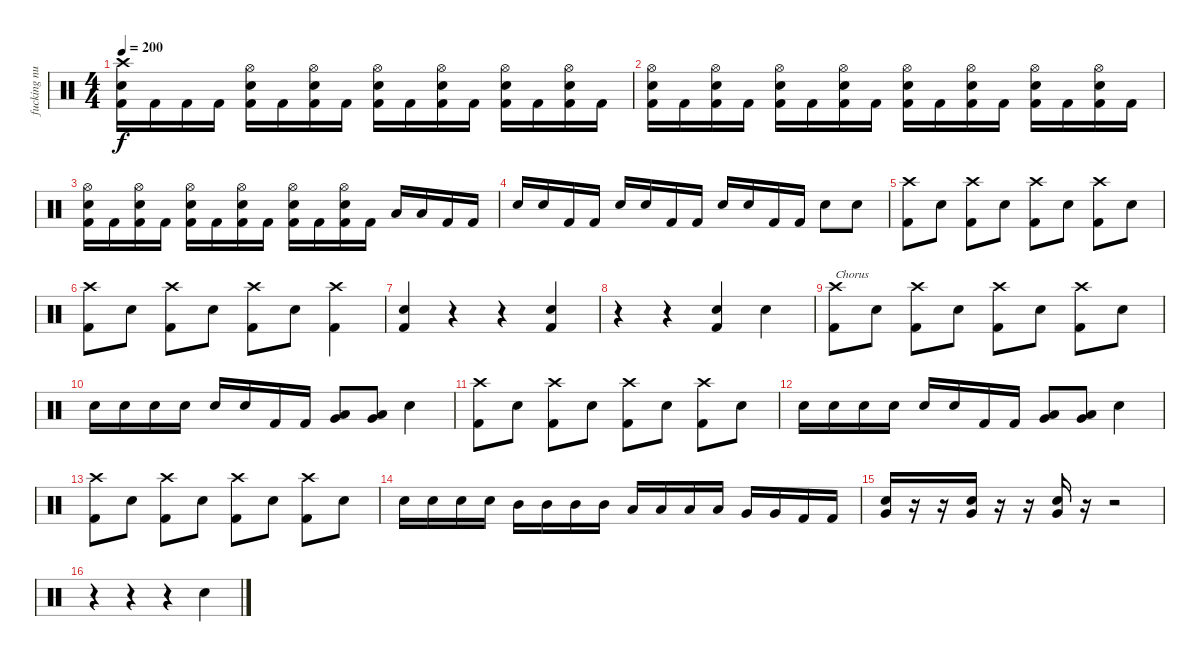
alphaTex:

\track ("fucking nuts." "fucking nu") {instrument percussion}
\staff {score}
\articulation defaults
\ts (4 4)
\tempo 200
\clef neutral
\ks c
("Crash high (hit)" "Electric Snare (hit)" "Kick (hit) 2").16{dy f} "Kick (hit) 2".16 "Kick (hit) 2".16 "Kick (hit) 2".16 ("Hi-Hat (open)" "Electric Snare (hit)" "Kick (hit) 2").16 "Kick (hit) 2".16 ("Hi-Hat (open)" "Electric Snare (hit)" "Kick (hit) 2").16 "Kick (hit) 2".16 ("Hi-Hat (open)" "Electric Snare (hit)" "Kick (hit) 2").16 "Kick (hit) 2".16 ("Hi-Hat (open)" "Electric Snare (hit)" "Kick (hit) 2").16 "Kick (hit) 2".16 ("Hi-Hat (open)" "Electric Snare (hit)" "Kick (hit) 2").16 "Kick (hit) 2".16 ("Hi-Hat (open)" "Electric Snare (hit)" "Kick (hit) 2").16 "Kick (hit) 2".16 |
("Hi-Hat (open)" "Electric Snare (hit)" "Kick (hit) 2").16 "Kick (hit) 2".16 ("Hi-Hat (open)" "Electric Snare (hit)" "Kick (hit) 2").16 "Kick (hit) 2".16 ("Hi-Hat (open)" "Electric Snare (hit)" "Kick (hit) 2").16 "Kick (hit) 2".16 ("Hi-Hat (open)" "Electric Snare (hit)" "Kick (hit) 2").16 "Kick (hit) 2".16 ("Hi-Hat (open)" "Electric Snare (hit)" "Kick (hit) 2").16 "Kick (hit) 2".16 ("Hi-Hat (open)" "Electric Snare (hit)" "Kick (hit) 2").16 "Kick (hit) 2".16 ("Hi-Hat (open)" "Electric Snare (hit)" "Kick (hit) 2").16 "Kick (hit) 2".16 ("Hi-Hat (open)" "Electric Snare (hit)" "Kick (hit) 2").16 "Kick (hit) 2".16 |
("Hi-Hat (open)" "Electric Snare (hit)" "Kick (hit) 2").16 "Kick (hit) 2".16 ("Hi-Hat (open)" "Electric Snare (hit)" "Kick (hit) 2").16 "Kick (hit) 2".16 ("Hi-Hat (open)" "Electric Snare (hit)" "Kick (hit) 2").16 "Kick (hit) 2".16 ("Hi-Hat (open)" "Electric Snare (hit)" "Kick (hit) 2").16 "Kick (hit) 2".16 ("Hi-Hat (open)" "Electric Snare (hit)" "Kick (hit) 2").16 "Kick (hit) 2".16 ("Hi-Hat (open)" "Electric Snare (hit)" "Kick (hit) 2").16 "Kick (hit) 2".16 "Low Tom (hit)".16 "Low Tom (hit)".16 "Kick (hit) 2".16 "Kick (hit) 2".16 |
"Electric Snare (hit)".16 "Electric Snare (hit)".16 "Kick (hit) 2".16 "Kick (hit) 2".16 "Electric Snare (hit)".16 "Electric Snare (hit)".16 "Kick (hit) 2".16 "Kick (hit) 2".16 "Electric Snare (hit)".16 "Electric Snare (hit)".16 "Kick (hit) 2".16 "Kick (hit) 2".16 "Electric Snare (hit)".8 "Electric Snare (hit)".8 |
("Crash high (hit)" "Kick (hit) 2").8 "Electric Snare (hit)".8 ("Crash high (hit)" "Kick (hit) 2").8 "Electric Snare (hit)".8 ("Crash high (hit)" "Kick (hit) 2").8 "Electric Snare (hit)".8 ("Crash high (hit)" "Kick (hit) 2").8 "Electric Snare (hit)".8 |
("Crash high (hit)" "Kick (hit) 2").8 "Electric Snare (hit)".8 ("Crash high (hit)" "Kick (hit) 2").8 "Electric Snare (hit)".8 ("Crash high (hit)" "Kick (hit) 2").8 "Electric Snare (hit)".8 ("Crash high (hit)" "Kick (hit) 2").4 |
("Electric Snare (hit)" "Kick (hit) 2").4 r.4 r.4 ("Electric Snare (hit)" "Kick (hit) 2").4 |
r.4 r.4 ("Electric Snare (hit)" "Kick (hit) 2").4 "Electric Snare (hit)".4 |
("Crash high (hit)" "Kick (hit) 2").8{txt "Chorus"} "Electric Snare (hit)".8 ("Crash high (hit)" "Kick (hit) 2").8 "Electric Snare (hit)".8 ("Crash high (hit)" "Kick (hit) 2").8 "Electric Snare (hit)".8 ("Crash high (hit)" "Kick (hit) 2").8 "Electric Snare (hit)".8 |
"Electric Snare (hit)".16 "Electric Snare (hit)".16 "Electric Snare (hit)".16 "Electric Snare (hit)".16 "Electric Snare (hit)".16 "Electric Snare (hit)".16 "Kick (hit) 2".16 "Kick (hit) 2".16 ("Low Tom (hit)" "Very Low Tom (hit)").8 ("Low Tom (hit)" "Very Low Tom (hit)").8 "Electric Snare (hit)".4 |
("Crash high (hit)" "Kick (hit) 2").8 "Electric Snare (hit)".8 ("Crash high (hit)" "Kick (hit) 2").8 "Electric Snare (hit)".8 ("Crash high (hit)" "Kick (hit) 2").8 "Electric Snare (hit)".8 ("Crash high (hit)" "Kick (hit) 2").8 "Electric Snare (hit)".8 |
"Electric Snare (hit)".16 "Electric Snare (hit)".16 "Electric Snare (hit)".16 "Electric Snare (hit)".16 "Electric Snare (hit)".16 "Electric Snare (hit)".16 "Kick (hit) 2".16 "Kick (hit) 2".16 ("Low Tom (hit)" "Very Low Tom (hit)").8 ("Low Tom (hit)" "Very Low Tom (hit)").8 "Electric Snare (hit)".4 |
("Crash high (hit)" "Kick (hit) 2").8 "Electric Snare (hit)".8 ("Crash high (hit)" "Kick (hit) 2").8 "Electric Snare (hit)".8 ("Crash high (hit)" "Kick (hit) 2").8 "Electric Snare (hit)".8 ("Crash high (hit)" "Kick (hit) 2").8 "Electric Snare (hit)".8 |
"Electric Snare (hit)".16 "Electric Snare (hit)".16 "Electric Snare (hit)".16 "Electric Snare (hit)".16 "Mid Tom (hit)".16 "Mid Tom (hit)".16 "Mid Tom (hit)".16 "Mid Tom (hit)".16 "Low Tom (hit)".16 "Low Tom (hit)".16 "Low Tom (hit)".16 "Low Tom (hit)".16 "Very Low Tom (hit)".16 "Very Low Tom (hit)".16 "Kick (hit) 2".16 "Kick (hit) 2".16 |
("Electric Snare (hit)" "Very Low Tom (hit)").16 r.16 r.16 ("Electric Snare (hit)" "Very Low Tom (hit)").16 r.16 r.16 ("Electric Snare (hit)" "Very Low Tom (hit)").16 r.16 r.2 |
r.4 r.4 r.4 "Electric Snare (hit)".4
